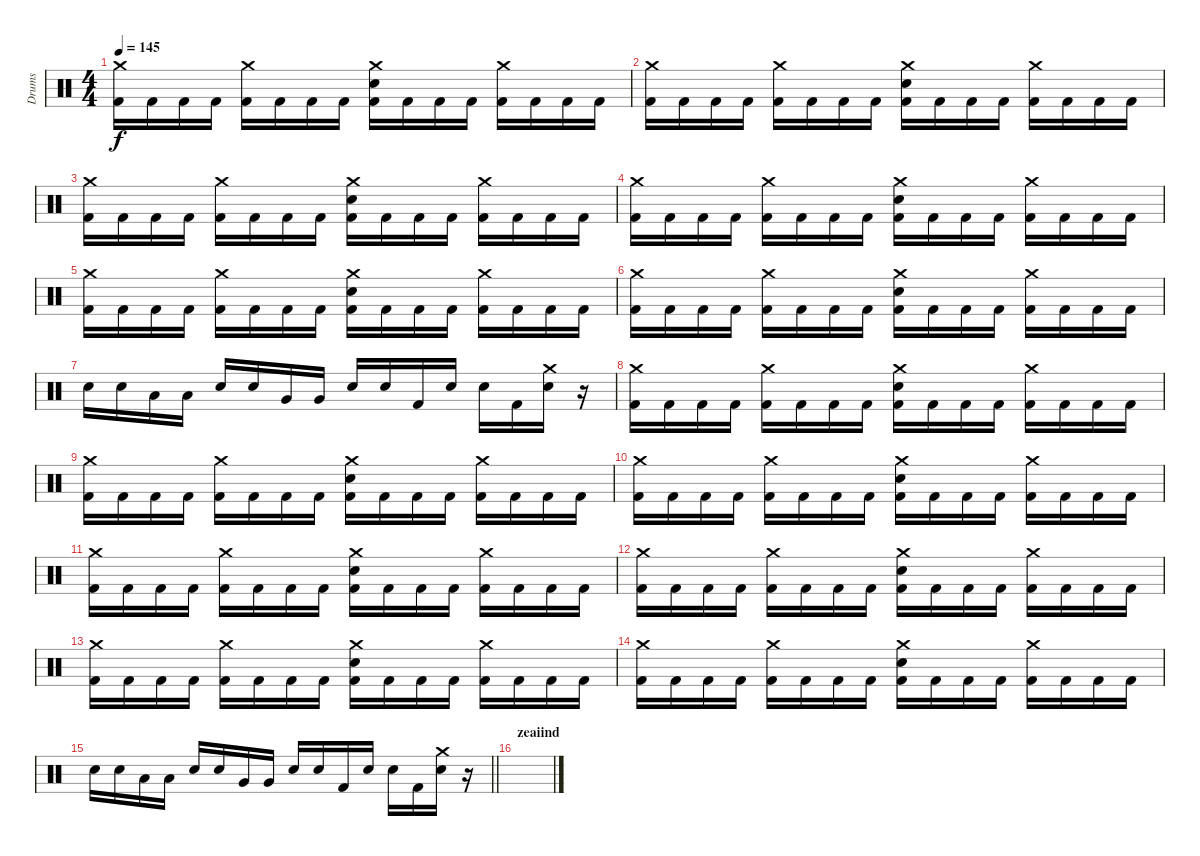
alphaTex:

\track ("Drums" "Drums") {instrument percussion}
\staff {score}
\articulation defaults
\ts (4 4)
\tempo 145
\clef neutral
\ks c
("Crash medium (hit)" "Kick (hit) 2").16{dy f} "Kick (hit) 2".16 "Kick (hit) 2".16 "Kick (hit) 2".16 ("Crash medium (hit)" "Kick (hit) 2").16 "Kick (hit) 2".16 "Kick (hit) 2".16 "Kick (hit) 2".16 ("Crash medium (hit)" "Snare (hit) 2" "Kick (hit) 2").16 "Kick (hit) 2".16 "Kick (hit) 2".16 "Kick (hit) 2".16 ("Crash medium (hit)" "Kick (hit) 2").16 "Kick (hit) 2".16 "Kick (hit) 2".16 "Kick (hit) 2".16 |
("Crash medium (hit)" "Kick (hit) 2").16 "Kick (hit) 2".16 "Kick (hit) 2".16 "Kick (hit) 2".16 ("Crash medium (hit)" "Kick (hit) 2").16 "Kick (hit) 2".16 "Kick (hit) 2".16 "Kick (hit) 2".16 ("Crash medium (hit)" "Snare (hit) 2" "Kick (hit) 2").16 "Kick (hit) 2".16 "Kick (hit) 2".16 "Kick (hit) 2".16 ("Crash medium (hit)" "Kick (hit) 2").16 "Kick (hit) 2".16 "Kick (hit) 2".16 "Kick (hit) 2".16 |
("Crash medium (hit)" "Kick (hit) 2").16 "Kick (hit) 2".16 "Kick (hit) 2".16 "Kick (hit) 2".16 ("Crash medium (hit)" "Kick (hit) 2").16 "Kick (hit) 2".16 "Kick (hit) 2".16 "Kick (hit) 2".16 ("Crash medium (hit)" "Snare (hit) 2" "Kick (hit) 2").16 "Kick (hit) 2".16 "Kick (hit) 2".16 "Kick (hit) 2".16 ("Crash medium (hit)" "Kick (hit) 2").16 "Kick (hit) 2".16 "Kick (hit) 2".16 "Kick (hit) 2".16 |
("Crash medium (hit)" "Kick (hit) 2").16 "Kick (hit) 2".16 "Kick (hit) 2".16 "Kick (hit) 2".16 ("Crash medium (hit)" "Kick (hit) 2").16 "Kick (hit) 2".16 "Kick (hit) 2".16 "Kick (hit) 2".16 ("Crash medium (hit)" "Snare (hit) 2" "Kick (hit) 2").16 "Kick (hit) 2".16 "Kick (hit) 2".16 "Kick (hit) 2".16 ("Crash medium (hit)" "Kick (hit) 2").16 "Kick (hit) 2".16 "Kick (hit) 2".16 "Kick (hit) 2".16 |
("Crash medium (hit)" "Kick (hit) 2").16 "Kick (hit) 2".16 "Kick (hit) 2".16 "Kick (hit) 2".16 ("Crash medium (hit)" "Kick (hit) 2").16 "Kick (hit) 2".16 "Kick (hit) 2".16 "Kick (hit) 2".16 ("Crash medium (hit)" "Snare (hit) 2" "Kick (hit) 2").16 "Kick (hit) 2".16 "Kick (hit) 2".16 "Kick (hit) 2".16 ("Crash medium (hit)" "Kick (hit) 2").16 "Kick (hit) 2".16 "Kick (hit) 2".16 "Kick (hit) 2".16 |
("Crash medium (hit)" "Kick (hit) 2").16 "Kick (hit) 2".16 "Kick (hit) 2".16 "Kick (hit) 2".16 ("Crash medium (hit)" "Kick (hit) 2").16 "Kick (hit) 2".16 "Kick (hit) 2".16 "Kick (hit) 2".16 ("Crash medium (hit)" "Snare (hit) 2" "Kick (hit) 2").16 "Kick (hit) 2".16 "Kick (hit) 2".16 "Kick (hit) 2".16 ("Crash medium (hit)" "Kick (hit) 2").16 "Kick (hit) 2".16 "Kick (hit) 2".16 "Kick (hit) 2".16 |
"Snare (hit) 2".16 "Snare (hit) 2".16 "Low Tom (hit)".16 "Low Tom (hit)".16 "Snare (hit) 2".16 "Snare (hit) 2".16 "Very Low Tom (hit)".16 "Very Low Tom (hit)".16 "Snare (hit) 2".16 "Snare (hit) 2".16 "Kick (hit) 2".16 "Snare (hit) 2".16 "Snare (hit) 2".16 "Kick (hit) 2".16 ("Crash medium (hit)" "Snare (hit) 2").16 r.16 |
("Crash medium (hit)" "Kick (hit) 2").16 "Kick (hit) 2".16 "Kick (hit) 2".16 "Kick (hit) 2".16 ("Crash medium (hit)" "Kick (hit) 2").16 "Kick (hit) 2".16 "Kick (hit) 2".16 "Kick (hit) 2".16 ("Crash medium (hit)" "Snare (hit) 2" "Kick (hit) 2").16 "Kick (hit) 2".16 "Kick (hit) 2".16 "Kick (hit) 2".16 ("Crash medium (hit)" "Kick (hit) 2").16 "Kick (hit) 2".16 "Kick (hit) 2".16 "Kick (hit) 2".16 |
("Crash medium (hit)" "Kick (hit) 2").16 "Kick (hit) 2".16 "Kick (hit) 2".16 "Kick (hit) 2".16 ("Crash medium (hit)" "Kick (hit) 2").16 "Kick (hit) 2".16 "Kick (hit) 2".16 "Kick (hit) 2".16 ("Crash medium (hit)" "Snare (hit) 2" "Kick (hit) 2").16 "Kick (hit) 2".16 "Kick (hit) 2".16 "Kick (hit) 2".16 ("Crash medium (hit)" "Kick (hit) 2").16 "Kick (hit) 2".16 "Kick (hit) 2".16 "Kick (hit) 2".16 |
("Crash medium (hit)" "Kick (hit) 2").16 "Kick (hit) 2".16 "Kick (hit) 2".16 "Kick (hit) 2".16 ("Crash medium (hit)" "Kick (hit) 2").16 "Kick (hit) 2".16 "Kick (hit) 2".16 "Kick (hit) 2".16 ("Crash medium (hit)" "Snare (hit) 2" "Kick (hit) 2").16 "Kick (hit) 2".16 "Kick (hit) 2".16 "Kick (hit) 2".16 ("Crash medium (hit)" "Kick (hit) 2").16 "Kick (hit) 2".16 "Kick (hit) 2".16 "Kick (hit) 2".16 |
("Crash medium (hit)" "Kick (hit) 2").16 "Kick (hit) 2".16 "Kick (hit) 2".16 "Kick (hit) 2".16 ("Crash medium (hit)" "Kick (hit) 2").16 "Kick (hit) 2".16 "Kick (hit) 2".16 "Kick (hit) 2".16 ("Crash medium (hit)" "Snare (hit) 2" "Kick (hit) 2").16 "Kick (hit) 2".16 "Kick (hit) 2".16 "Kick (hit) 2".16 ("Crash medium (hit)" "Kick (hit) 2").16 "Kick (hit) 2".16 "Kick (hit) 2".16 "Kick (hit) 2".16 |
("Crash medium (hit)" "Kick (hit) 2").16 "Kick (hit) 2".16 "Kick (hit) 2".16 "Kick (hit) 2".16 ("Crash medium (hit)" "Kick (hit) 2").16 "Kick (hit) 2".16 "Kick (hit) 2".16 "Kick (hit) 2".16 ("Crash medium (hit)" "Snare (hit) 2" "Kick (hit) 2").16 "Kick (hit) 2".16 "Kick (hit) 2".16 "Kick (hit) 2".16 ("Crash medium (hit)" "Kick (hit) 2").16 "Kick (hit) 2".16 "Kick (hit) 2".16 "Kick (hit) 2".16 |
("Crash medium (hit)" "Kick (hit) 2").16 "Kick (hit) 2".16 "Kick (hit) 2".16 "Kick (hit) 2".16 ("Crash medium (hit)" "Kick (hit) 2").16 "Kick (hit) 2".16 "Kick (hit) 2".16 "Kick (hit) 2".16 ("Crash medium (hit)" "Snare (hit) 2" "Kick (hit) 2").16 "Kick (hit) 2".16 "Kick (hit) 2".16 "Kick (hit) 2".16 ("Crash medium (hit)" "Kick (hit) 2").16 "Kick (hit) 2".16 "Kick (hit) 2".16 "Kick (hit) 2".16 |
("Crash medium (hit)" "Kick (hit) 2").16 "Kick (hit) 2".16 "Kick (hit) 2".16 "Kick (hit) 2".16 ("Crash medium (hit)" "Kick (hit) 2").16 "Kick (hit) 2".16 "Kick (hit) 2".16 "Kick (hit) 2".16 ("Crash medium (hit)" "Snare (hit) 2" "Kick (hit) 2").16 "Kick (hit) 2".16 "Kick (hit) 2".16 "Kick (hit) 2".16 ("Crash medium (hit)" "Kick (hit) 2").16 "Kick (hit) 2".16 "Kick (hit) 2".16 "Kick (hit) 2".16 |
\barLineRight lightlight "Snare (hit) 2".16 "Snare (hit) 2".16 "Low Tom (hit)".16 "Low Tom (hit)".16 "Snare (hit) 2".16 "Snare (hit) 2".16 "Very Low Tom (hit)".16 "Very Low Tom (hit)".16 "Snare (hit) 2".16 "Snare (hit) 2".16 "Kick (hit) 2".16 "Snare (hit) 2".16 "Snare (hit) 2".16 "Kick (hit) 2".16
("Crash medium (hit)" "Snare (hit) 2").16 r.16 |
\section ("" "zeaiind")
